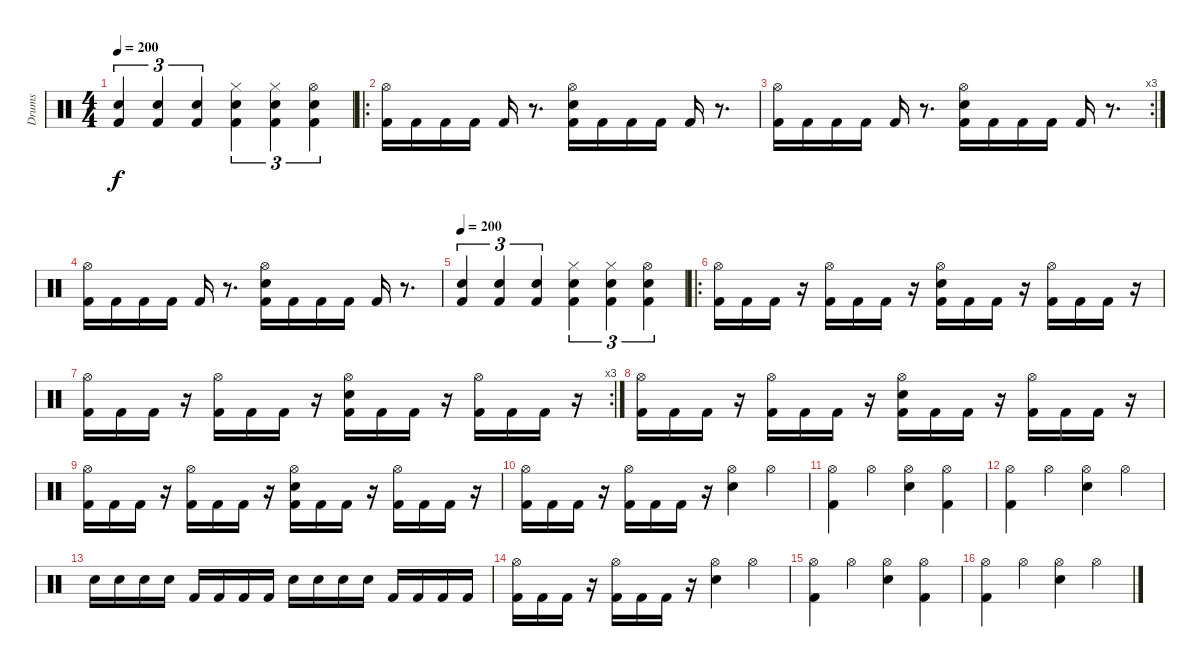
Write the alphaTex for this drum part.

\track ("Drums" "Drums") {instrument percussion}
\staff {score}
\articulation defaults
\ts (4 4)
\tempo 200
\clef neutral
\ks c
("Electric Snare (hit)" "Kick (hit) 2").4{tu (3 2) dy f} ("Electric Snare (hit)" "Kick (hit) 2").4{tu (3 2)} ("Electric Snare (hit)" "Kick (hit) 2").4{tu (3 2)} ("Hi-Hat (closed)" "Electric Snare (hit)" "Kick (hit) 2").4{tu (3 2)} ("Hi-Hat (closed)" "Electric Snare (hit)" "Kick (hit) 2").4{tu (3 2)} ("Hi-Hat (open)" "Electric Snare (hit)" "Kick (hit) 2").4{tu (3 2)} |
\ro
("Hi-Hat (open)" "Kick (hit) 2").16 "Kick (hit) 2".16 "Kick (hit) 2".16 "Kick (hit) 2".16 "Kick (hit) 2".16 r.8{d} ("Hi-Hat (open)" "Electric Snare (hit)" "Kick (hit) 2").16 "Kick (hit) 2".16 "Kick (hit) 2".16 "Kick (hit) 2".16 "Kick (hit) 2".16 r.8{d} |
\rc 3
("Hi-Hat (open)" "Kick (hit) 2").16 "Kick (hit) 2".16 "Kick (hit) 2".16 "Kick (hit) 2".16 "Kick (hit) 2".16 r.8{d} ("Hi-Hat (open)" "Electric Snare (hit)" "Kick (hit) 2").16 "Kick (hit) 2".16 "Kick (hit) 2".16 "Kick (hit) 2".16 "Kick (hit) 2".16 r.8{d} |
("Hi-Hat (open)" "Kick (hit) 2").16 "Kick (hit) 2".16 "Kick (hit) 2".16 "Kick (hit) 2".16 "Kick (hit) 2".16 r.8{d} ("Hi-Hat (open)" "Electric Snare (hit)" "Kick (hit) 2").16 "Kick (hit) 2".16 "Kick (hit) 2".16 "Kick (hit) 2".16 "Kick (hit) 2".16 r.8{d} |
\tempo 200
("Electric Snare (hit)" "Kick (hit) 2").4{tu (3 2)} ("Electric Snare (hit)" "Kick (hit) 2").4{tu (3 2)} ("Electric Snare (hit)" "Kick (hit) 2").4{tu (3 2)} ("Hi-Hat (closed)" "Electric Snare (hit)" "Kick (hit) 2").4{tu (3 2)} ("Hi-Hat (closed)" "Electric Snare (hit)" "Kick (hit) 2").4{tu (3 2)} ("Hi-Hat (open)" "Electric Snare (hit)" "Kick (hit) 2").4{tu (3 2)} |
\ro
("Hi-Hat (open)" "Kick (hit) 2").16 "Kick (hit) 2".16 "Kick (hit) 2".16 r.16 ("Hi-Hat (open)" "Kick (hit) 2").16 "Kick (hit) 2".16 "Kick (hit) 2".16 r.16 ("Hi-Hat (open)" "Electric Snare (hit)" "Kick (hit) 2").16 "Kick (hit) 2".16 "Kick (hit) 2".16 r.16 ("Hi-Hat (open)" "Kick (hit) 2").16 "Kick (hit) 2".16 "Kick (hit) 2".16 r.16 |
\rc 3
("Hi-Hat (open)" "Kick (hit) 2").16 "Kick (hit) 2".16 "Kick (hit) 2".16 r.16 ("Hi-Hat (open)" "Kick (hit) 2").16 "Kick (hit) 2".16 "Kick (hit) 2".16 r.16 ("Hi-Hat (open)" "Electric Snare (hit)" "Kick (hit) 2").16 "Kick (hit) 2".16 "Kick (hit) 2".16 r.16 ("Hi-Hat (open)" "Kick (hit) 2").16 "Kick (hit) 2".16 "Kick (hit) 2".16 r.16 |
("Hi-Hat (open)" "Kick (hit) 2").16 "Kick (hit) 2".16 "Kick (hit) 2".16 r.16 ("Hi-Hat (open)" "Kick (hit) 2").16 "Kick (hit) 2".16 "Kick (hit) 2".16 r.16 ("Hi-Hat (open)" "Electric Snare (hit)" "Kick (hit) 2").16 "Kick (hit) 2".16 "Kick (hit) 2".16 r.16 ("Hi-Hat (open)" "Kick (hit) 2").16 "Kick (hit) 2".16 "Kick (hit) 2".16 r.16 |
("Hi-Hat (open)" "Kick (hit) 2").16 "Kick (hit) 2".16 "Kick (hit) 2".16 r.16 ("Hi-Hat (open)" "Kick (hit) 2").16 "Kick (hit) 2".16 "Kick (hit) 2".16 r.16 ("Hi-Hat (open)" "Electric Snare (hit)" "Kick (hit) 2").16 "Kick (hit) 2".16 "Kick (hit) 2".16 r.16 ("Hi-Hat (open)" "Kick (hit) 2").16 "Kick (hit) 2".16 "Kick (hit) 2".16 r.16 |
("Hi-Hat (open)" "Kick (hit) 2").16 "Kick (hit) 2".16 "Kick (hit) 2".16 r.16 ("Hi-Hat (open)" "Kick (hit) 2").16 "Kick (hit) 2".16 "Kick (hit) 2".16 r.16 ("Hi-Hat (open)" "Electric Snare (hit)").4 "Hi-Hat (open)".4 |
("Hi-Hat (open)" "Kick (hit) 2").4 "Hi-Hat (open)".4 ("Hi-Hat (open)" "Electric Snare (hit)").4 ("Hi-Hat (open)" "Kick (hit) 2").4 |
("Hi-Hat (open)" "Kick (hit) 2").4 "Hi-Hat (open)".4 ("Hi-Hat (open)" "Electric Snare (hit)").4 "Hi-Hat (open)".4 |
"Electric Snare (hit)".16 "Electric Snare (hit)".16 "Electric Snare (hit)".16 "Electric Snare (hit)".16 "Kick (hit) 2".16 "Kick (hit) 2".16 "Kick (hit) 2".16 "Kick (hit) 2".16 "Electric Snare (hit)".16 "Electric Snare (hit)".16 "Electric Snare (hit)".16 "Electric Snare (hit)".16 "Kick (hit) 2".16 "Kick (hit) 2".16 "Kick (hit) 2".16 "Kick (hit) 2".16 |
("Hi-Hat (open)" "Kick (hit) 2").16 "Kick (hit) 2".16 "Kick (hit) 2".16 r.16 ("Hi-Hat (open)" "Kick (hit) 2").16 "Kick (hit) 2".16 "Kick (hit) 2".16 r.16 ("Hi-Hat (open)" "Electric Snare (hit)").4 "Hi-Hat (open)".4 |
("Hi-Hat (open)" "Kick (hit) 2").4 "Hi-Hat (open)".4 ("Hi-Hat (open)" "Electric Snare (hit)").4 ("Hi-Hat (open)" "Kick (hit) 2").4 |
("Hi-Hat (open)" "Kick (hit) 2").4 "Hi-Hat (open)".4 ("Hi-Hat (open)" "Electric Snare (hit)").4 "Hi-Hat (open)".4
